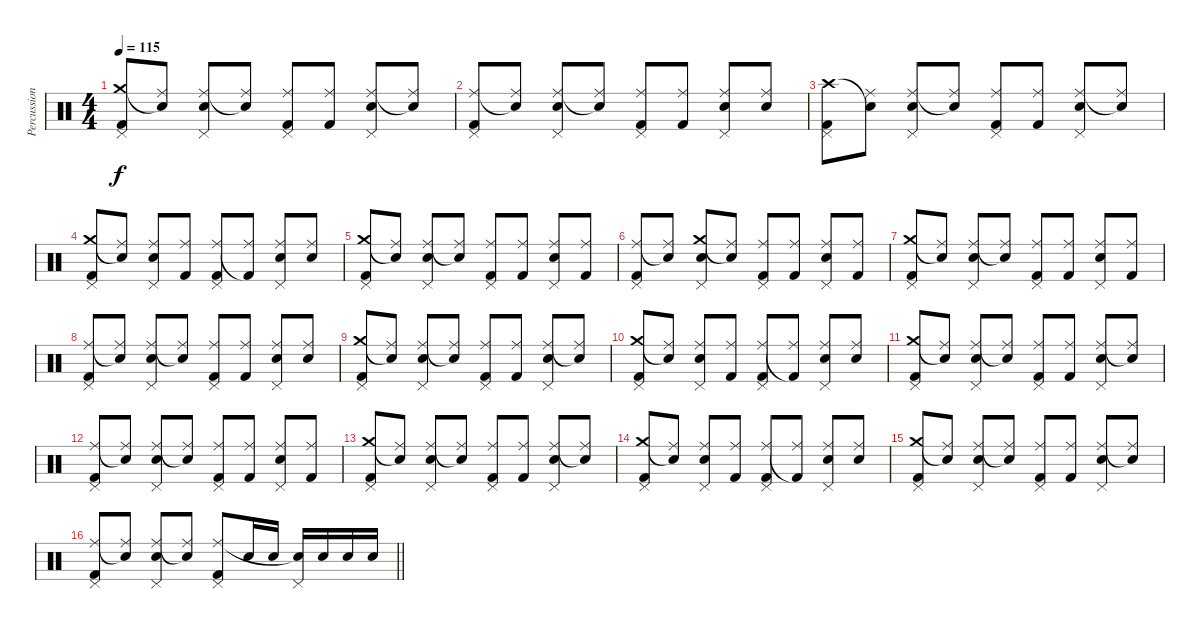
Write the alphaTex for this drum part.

\track ("Percussioni" "Percussion") {instrument percussion}
\staff {score}
\articulation defaults
\ts (4 4)
\tempo 115
\clef neutral
\ks c
("Pedal Hi-Hat (hit)" "Crash medium (hit)" "Kick (hit) 2").8{dy f} ("Ride (middle)" "Snare (hit)"{t}).8 ("Pedal Hi-Hat (hit)" "Ride (middle)" "Electric Snare (hit)").8 ("Ride (middle)" "Snare (hit)"{t}).8 ("Pedal Hi-Hat (hit)" "Ride (middle)" "Kick (hit) 2").8 ("Ride (middle)" "Kick (hit) 2").8 ("Pedal Hi-Hat (hit)" "Ride (middle)" "Electric Snare (hit)").8 ("Ride (middle)" "Snare (hit)"{t}).8 |
("Pedal Hi-Hat (hit)" "Ride (middle)" "Kick (hit) 2").8 ("Ride (middle)" "Snare (hit)"{t}).8 ("Pedal Hi-Hat (hit)" "Ride (middle)" "Electric Snare (hit)").8 ("Ride (middle)" "Snare (hit)"{t}).8 ("Pedal Hi-Hat (hit)" "Ride (middle)" "Kick (hit) 2").8 ("Ride (middle)" "Kick (hit) 2").8 ("Pedal Hi-Hat (hit)" "Ride (middle)" "Electric Snare (hit)").8 ("Ride (middle)" "Electric Snare (hit)").8 |
("Pedal Hi-Hat (hit)" "Crash high (hit)" "Kick (hit) 2").8 ("Ride (middle)" "Snare (hit)"{t}).8 ("Pedal Hi-Hat (hit)" "Ride (middle)" "Electric Snare (hit)").8 ("Ride (middle)" "Snare (hit)"{t}).8 ("Pedal Hi-Hat (hit)" "Ride (middle)" "Kick (hit) 2").8 ("Ride (middle)" "Kick (hit) 2").8 ("Pedal Hi-Hat (hit)" "Ride (middle)" "Electric Snare (hit)").8 ("Ride (middle)" "Snare (hit)"{t}).8 |
("Pedal Hi-Hat (hit)" "Crash medium (hit)" "Kick (hit) 2").8 ("Ride (middle)" "Snare (hit)"{t}).8 ("Pedal Hi-Hat (hit)" "Ride (middle)" "Electric Snare (hit)").8 ("Ride (middle)" "Kick (hit) 2").8 ("Pedal Hi-Hat (hit)" "Ride (middle)" "Kick (hit) 2").8 ("Ride (middle)" "Kick (hit) 2"{t}).8 ("Pedal Hi-Hat (hit)" "Ride (middle)" "Electric Snare (hit)").8 ("Ride (middle)" "Electric Snare (hit)").8 |
("Pedal Hi-Hat (hit)" "Crash medium (hit)" "Kick (hit) 2").8 ("Ride (middle)" "Snare (hit)"{t}).8 ("Pedal Hi-Hat (hit)" "Ride (middle)" "Electric Snare (hit)").8 ("Ride (middle)" "Snare (hit)"{t}).8 ("Pedal Hi-Hat (hit)" "Ride (middle)" "Kick (hit) 2").8 ("Ride (middle)" "Kick (hit) 2").8 ("Pedal Hi-Hat (hit)" "Ride (middle)" "Electric Snare (hit)").8 ("Ride (middle)" "Kick (hit) 2").8 |
("Pedal Hi-Hat (hit)" "Ride (middle)" "Kick (hit) 2").8 ("Ride (middle)" "Snare (hit)"{t}).8 ("Pedal Hi-Hat (hit)" "Crash medium (hit)" "Electric Snare (hit)").8 ("Ride (middle)" "Snare (hit)"{t}).8 ("Pedal Hi-Hat (hit)" "Ride (middle)" "Kick (hit) 2").8 ("Ride (middle)" "Kick (hit) 2").8 ("Pedal Hi-Hat (hit)" "Ride (middle)" "Electric Snare (hit)").8 ("Ride (middle)" "Kick (hit) 2").8 |
("Pedal Hi-Hat (hit)" "Crash medium (hit)" "Kick (hit) 2").8 ("Ride (middle)" "Snare (hit)"{t}).8 ("Pedal Hi-Hat (hit)" "Ride (middle)" "Electric Snare (hit)").8 ("Ride (middle)" "Snare (hit)"{t}).8 ("Pedal Hi-Hat (hit)" "Ride (middle)" "Kick (hit) 2").8 ("Ride (middle)" "Kick (hit) 2").8 ("Pedal Hi-Hat (hit)" "Ride (middle)" "Electric Snare (hit)").8 ("Ride (middle)" "Kick (hit) 2").8 |
("Pedal Hi-Hat (hit)" "Ride (middle)" "Kick (hit) 2").8 ("Ride (middle)" "Snare (hit)"{t}).8 ("Pedal Hi-Hat (hit)" "Ride (middle)" "Electric Snare (hit)").8 ("Ride (middle)" "Snare (hit)"{t}).8 ("Pedal Hi-Hat (hit)" "Ride (middle)" "Kick (hit) 2").8 ("Ride (middle)" "Kick (hit) 2").8 ("Pedal Hi-Hat (hit)" "Ride (middle)" "Electric Snare (hit)").8 ("Ride (middle)" "Electric Snare (hit)").8 |
("Pedal Hi-Hat (hit)" "Crash medium (hit)" "Kick (hit) 2").8 ("Ride (middle)" "Snare (hit)"{t}).8 ("Pedal Hi-Hat (hit)" "Ride (middle)" "Electric Snare (hit)").8 ("Ride (middle)" "Snare (hit)"{t}).8 ("Pedal Hi-Hat (hit)" "Ride (middle)" "Kick (hit) 2").8 ("Ride (middle)" "Kick (hit) 2").8 ("Pedal Hi-Hat (hit)" "Ride (middle)" "Electric Snare (hit)").8 ("Ride (middle)" "Snare (hit)"{t}).8 |
("Pedal Hi-Hat (hit)" "Crash medium (hit)" "Kick (hit) 2").8 ("Ride (middle)" "Snare (hit)"{t}).8 ("Pedal Hi-Hat (hit)" "Ride (middle)" "Electric Snare (hit)").8 ("Ride (middle)" "Kick (hit) 2").8 ("Pedal Hi-Hat (hit)" "Ride (middle)" "Kick (hit) 2").8 ("Ride (middle)" "Kick (hit) 2"{t}).8 ("Pedal Hi-Hat (hit)" "Ride (middle)" "Electric Snare (hit)").8 ("Ride (middle)" "Electric Snare (hit)").8 |
("Pedal Hi-Hat (hit)" "Crash medium (hit)" "Kick (hit) 2").8 ("Ride (middle)" "Snare (hit)"{t}).8 ("Pedal Hi-Hat (hit)" "Ride (middle)" "Electric Snare (hit)").8 ("Ride (middle)" "Snare (hit)"{t}).8 ("Pedal Hi-Hat (hit)" "Ride (middle)" "Kick (hit) 2").8 ("Ride (middle)" "Kick (hit) 2").8 ("Pedal Hi-Hat (hit)" "Ride (middle)" "Electric Snare (hit)").8 ("Ride (middle)" "Snare (hit)"{t}).8 |
("Pedal Hi-Hat (hit)" "Ride (middle)" "Kick (hit) 2").8 ("Ride (middle)" "Snare (hit)"{t}).8 ("Pedal Hi-Hat (hit)" "Ride (middle)" "Electric Snare (hit)").8 ("Ride (middle)" "Snare (hit)"{t}).8 ("Pedal Hi-Hat (hit)" "Ride (middle)" "Kick (hit) 2").8 ("Ride (middle)" "Kick (hit) 2").8 ("Pedal Hi-Hat (hit)" "Ride (middle)" "Electric Snare (hit)").8 ("Ride (middle)" "Kick (hit) 2").8 |
("Pedal Hi-Hat (hit)" "Crash medium (hit)" "Kick (hit) 2").8 ("Ride (middle)" "Snare (hit)"{t}).8 ("Pedal Hi-Hat (hit)" "Ride (middle)" "Electric Snare (hit)").8 ("Ride (middle)" "Snare (hit)"{t}).8 ("Pedal Hi-Hat (hit)" "Ride (middle)" "Kick (hit) 2").8 ("Ride (middle)" "Kick (hit) 2").8 ("Pedal Hi-Hat (hit)" "Ride (middle)" "Electric Snare (hit)").8 ("Ride (middle)" "Snare (hit)"{t}).8 |
("Pedal Hi-Hat (hit)" "Crash medium (hit)" "Kick (hit) 2").8 ("Ride (middle)" "Snare (hit)"{t}).8 ("Pedal Hi-Hat (hit)" "Ride (middle)" "Electric Snare (hit)").8 ("Ride (middle)" "Kick (hit) 2").8 ("Pedal Hi-Hat (hit)" "Ride (middle)" "Kick (hit) 2").8 ("Ride (middle)" "Kick (hit) 2"{t}).8 ("Pedal Hi-Hat (hit)" "Ride (middle)" "Electric Snare (hit)").8 ("Ride (middle)" "Electric Snare (hit)").8 |
("Pedal Hi-Hat (hit)" "Crash medium (hit)" "Kick (hit) 2").8 ("Ride (middle)" "Snare (hit)"{t}).8 ("Pedal Hi-Hat (hit)" "Ride (middle)" "Electric Snare (hit)").8 ("Ride (middle)" "Snare (hit)"{t}).8 ("Pedal Hi-Hat (hit)" "Ride (middle)" "Kick (hit) 2").8 ("Ride (middle)" "Kick (hit) 2").8 ("Pedal Hi-Hat (hit)" "Ride (middle)" "Electric Snare (hit)").8 ("Ride (middle)" "Snare (hit)"{t}).8 |
\barLineRight lightlight
("Pedal Hi-Hat (hit)" "Ride (middle)" "Kick (hit) 2").8 ("Ride (middle)" "Snare (hit)"{t}).8 ("Pedal Hi-Hat (hit)" "Ride (middle)" "Electric Snare (hit)").8 ("Ride (middle)" "Snare (hit)"{t}).8 ("Pedal Hi-Hat (hit)" "Ride (middle)" "Kick (hit) 2").8 "Electric Snare (hit)".16 "Electric Snare (hit)".16 ("Pedal Hi-Hat (hit)" "Electric Snare (hit)"{t}).16 "Electric Snare (hit)".16 "Electric Snare (hit)".16 "Electric Snare (hit)".16
